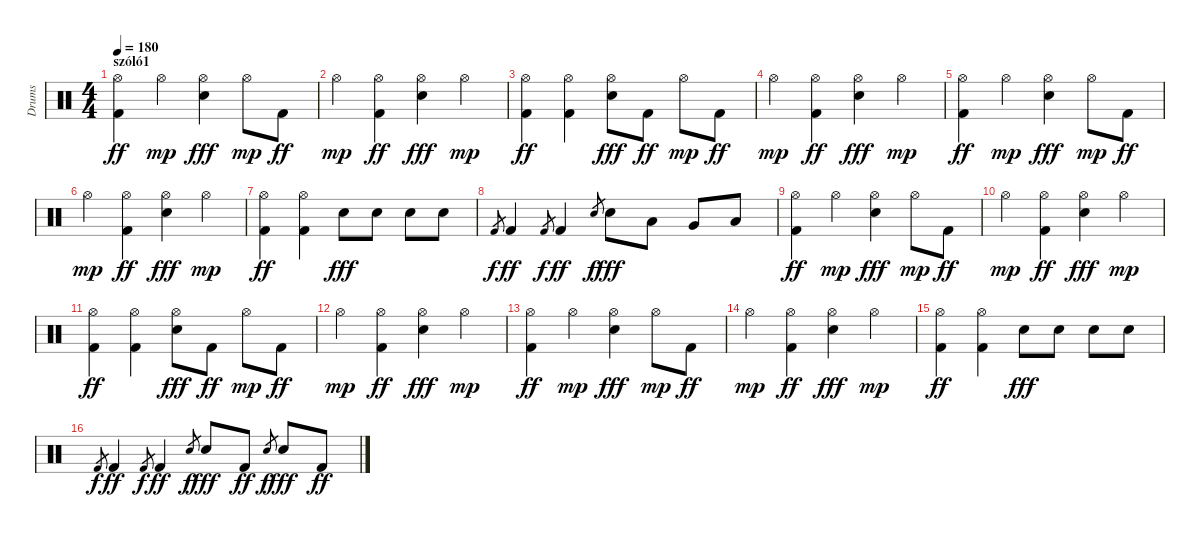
\track ("Drums" "Drums") {instrument percussion}
\staff {score}
\articulation defaults
\ts (4 4)
\section ("" "szóló1")
\tempo 180
\clef neutral
\ks c
("Hi-Hat (open)" "Kick (hit) 2").4{dy ff} "Hi-Hat (open)".4{dy mp} ("Hi-Hat (open)" "Snare (hit) 2").4{dy fff} "Hi-Hat (open)".8{dy mp} "Kick (hit) 2".8{dy ff} |
"Hi-Hat (open)".4{dy mp} ("Hi-Hat (open)" "Kick (hit) 2").4{dy ff} ("Hi-Hat (open)" "Snare (hit) 2").4{dy fff} "Hi-Hat (open)".4{dy mp} |
("Hi-Hat (open)" "Kick (hit) 2").4{dy ff} ("Hi-Hat (open)" "Kick (hit) 2").4 ("Hi-Hat (open)" "Snare (hit) 2").8{dy fff} "Kick (hit) 2".8{dy ff} "Hi-Hat (open)".8{dy mp} "Kick (hit) 2".8{dy ff} |
"Hi-Hat (open)".4{dy mp} ("Hi-Hat (open)" "Kick (hit) 2").4{dy ff} ("Hi-Hat (open)" "Snare (hit) 2").4{dy fff} "Hi-Hat (open)".4{dy mp} |
("Hi-Hat (open)" "Kick (hit) 2").4{dy ff} "Hi-Hat (open)".4{dy mp} ("Hi-Hat (open)" "Snare (hit) 2").4{dy fff} "Hi-Hat (open)".8{dy mp} "Kick (hit) 2".8{dy ff} |
"Hi-Hat (open)".4{dy mp} ("Hi-Hat (open)" "Kick (hit) 2").4{dy ff} ("Hi-Hat (open)" "Snare (hit) 2").4{dy fff} "Hi-Hat (open)".4{dy mp} |
("Hi-Hat (open)" "Kick (hit) 2").4{dy ff} ("Hi-Hat (open)" "Kick (hit) 2").4 "Snare (hit) 2".8{dy fff} "Snare (hit) 2".8 "Snare (hit) 2".8 "Snare (hit) 2".8 |
"Kick (hit) 2".8{gr dy f} "Kick (hit) 2".4{dy ff} "Kick (hit) 2".8{gr dy f} "Kick (hit) 2".4{dy ff} "Snare (hit) 2".8{gr dy f} "Snare (hit) 2".8{dy fff} "Low Tom (hit)".8 "Very Low Tom (hit)".8 "Low Floor Tom (hit)".8 |
("Hi-Hat (open)" "Kick (hit) 2").4{dy ff} "Hi-Hat (open)".4{dy mp} ("Hi-Hat (open)" "Snare (hit) 2").4{dy fff} "Hi-Hat (open)".8{dy mp} "Kick (hit) 2".8{dy ff} |
"Hi-Hat (open)".4{dy mp} ("Hi-Hat (open)" "Kick (hit) 2").4{dy ff} ("Hi-Hat (open)" "Snare (hit) 2").4{dy fff} "Hi-Hat (open)".4{dy mp} |
("Hi-Hat (open)" "Kick (hit) 2").4{dy ff} ("Hi-Hat (open)" "Kick (hit) 2").4 ("Hi-Hat (open)" "Snare (hit) 2").8{dy fff} "Kick (hit) 2".8{dy ff} "Hi-Hat (open)".8{dy mp} "Kick (hit) 2".8{dy ff} |
"Hi-Hat (open)".4{dy mp} ("Hi-Hat (open)" "Kick (hit) 2").4{dy ff} ("Hi-Hat (open)" "Snare (hit) 2").4{dy fff} "Hi-Hat (open)".4{dy mp} |
("Hi-Hat (open)" "Kick (hit) 2").4{dy ff} "Hi-Hat (open)".4{dy mp} ("Hi-Hat (open)" "Snare (hit) 2").4{dy fff} "Hi-Hat (open)".8{dy mp} "Kick (hit) 2".8{dy ff} |
"Hi-Hat (open)".4{dy mp} ("Hi-Hat (open)" "Kick (hit) 2").4{dy ff} ("Hi-Hat (open)" "Snare (hit) 2").4{dy fff} "Hi-Hat (open)".4{dy mp} |
("Hi-Hat (open)" "Kick (hit) 2").4{dy ff} ("Hi-Hat (open)" "Kick (hit) 2").4 "Snare (hit) 2".8{dy fff} "Snare (hit) 2".8 "Snare (hit) 2".8 "Snare (hit) 2".8 |
"Kick (hit) 2".8{gr dy f} "Kick (hit) 2".4{dy ff} "Kick (hit) 2".8{gr dy f} "Kick (hit) 2".4{dy ff} "Snare (hit) 2".8{gr dy f} "Snare (hit) 2".8{dy fff} "Kick (hit) 2".8{dy ff} "Snare (hit) 2".8{gr dy f} "Snare (hit) 2".8{dy fff} "Kick (hit) 2".8{dy ff}
